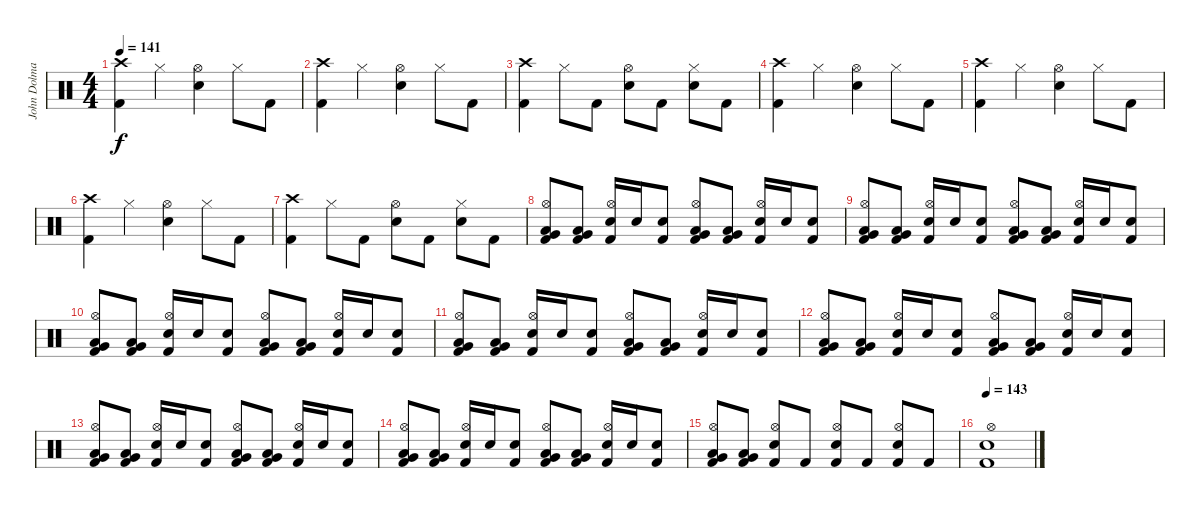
\track ("John Dolmayan (Drums)" "John Dolma") {instrument percussion}
\staff {score}
\articulation defaults
\ts (4 4)
\tempo 141
\clef neutral
\ks c
("Crash high (hit)" "Kick (hit) 2").4{dy f} "Hi-Hat (closed)".4 ("Hi-Hat (open)" "Electric Snare (hit)").4 "Hi-Hat (closed)".8 "Kick (hit) 2".8 |
("Crash high (hit)" "Kick (hit) 2").4 "Hi-Hat (closed)".4 ("Hi-Hat (open)" "Electric Snare (hit)").4 "Hi-Hat (closed)".8 "Kick (hit) 2".8 |
("Crash high (hit)" "Kick (hit) 2").4 "Hi-Hat (closed)".8 "Kick (hit) 2".8 ("Hi-Hat (open)" "Electric Snare (hit)").8 "Kick (hit) 2".8 ("Hi-Hat (closed)" "Electric Snare (hit)").8 "Kick (hit) 2".8 |
("Crash high (hit)" "Kick (hit) 2").4 "Hi-Hat (closed)".4 ("Hi-Hat (open)" "Electric Snare (hit)").4 "Hi-Hat (closed)".8 "Kick (hit) 2".8 |
("Crash high (hit)" "Kick (hit) 2").4 "Hi-Hat (closed)".4 ("Hi-Hat (open)" "Electric Snare (hit)").4 "Hi-Hat (closed)".8 "Kick (hit) 2".8 |
("Crash high (hit)" "Kick (hit) 2").4 "Hi-Hat (closed)".4 ("Hi-Hat (open)" "Electric Snare (hit)").4 "Hi-Hat (closed)".8 "Kick (hit) 2".8 |
("Crash high (hit)" "Kick (hit) 2").4 "Hi-Hat (closed)".8 "Kick (hit) 2".8 ("Hi-Hat (open)" "Electric Snare (hit)").8 "Kick (hit) 2".8 ("Hi-Hat (closed)" "Electric Snare (hit)").8 "Kick (hit) 2".8 |
("Hi-Hat (open)" "Very Low Tom (hit)" "Low Floor Tom (hit)" "Kick (hit) 2").8 ("Very Low Tom (hit)" "Low Floor Tom (hit)" "Kick (hit) 2").8 ("Hi-Hat (open)" "Electric Snare (hit)" "Kick (hit) 2").16 "Electric Snare (hit)".16 ("Electric Snare (hit)" "Kick (hit) 2").8 ("Hi-Hat (open)" "Very Low Tom (hit)" "Low Floor Tom (hit)" "Kick (hit) 2").8 ("Very Low Tom (hit)" "Low Floor Tom (hit)" "Kick (hit) 2").8 ("Hi-Hat (open)" "Electric Snare (hit)" "Kick (hit) 2").16 "Electric Snare (hit)".16 ("Electric Snare (hit)" "Kick (hit) 2").8 |
("Hi-Hat (open)" "Very Low Tom (hit)" "Low Floor Tom (hit)" "Kick (hit) 2").8 ("Very Low Tom (hit)" "Low Floor Tom (hit)" "Kick (hit) 2").8 ("Hi-Hat (open)" "Electric Snare (hit)" "Kick (hit) 2").16 "Electric Snare (hit)".16 ("Electric Snare (hit)" "Kick (hit) 2").8 ("Hi-Hat (open)" "Very Low Tom (hit)" "Low Floor Tom (hit)" "Kick (hit) 2").8 ("Very Low Tom (hit)" "Low Floor Tom (hit)" "Kick (hit) 2").8 ("Hi-Hat (open)" "Electric Snare (hit)" "Kick (hit) 2").16 "Electric Snare (hit)".16 ("Electric Snare (hit)" "Kick (hit) 2").8 |
("Hi-Hat (open)" "Very Low Tom (hit)" "Low Floor Tom (hit)" "Kick (hit) 2").8 ("Very Low Tom (hit)" "Low Floor Tom (hit)" "Kick (hit) 2").8 ("Hi-Hat (open)" "Electric Snare (hit)" "Kick (hit) 2").16 "Electric Snare (hit)".16 ("Electric Snare (hit)" "Kick (hit) 2").8 ("Hi-Hat (open)" "Very Low Tom (hit)" "Low Floor Tom (hit)" "Kick (hit) 2").8 ("Very Low Tom (hit)" "Low Floor Tom (hit)" "Kick (hit) 2").8 ("Hi-Hat (open)" "Electric Snare (hit)" "Kick (hit) 2").16 "Electric Snare (hit)".16 ("Electric Snare (hit)" "Kick (hit) 2").8 |
("Hi-Hat (open)" "Very Low Tom (hit)" "Low Floor Tom (hit)" "Kick (hit) 2").8 ("Very Low Tom (hit)" "Low Floor Tom (hit)" "Kick (hit) 2").8 ("Hi-Hat (open)" "Electric Snare (hit)" "Kick (hit) 2").16 "Electric Snare (hit)".16 ("Electric Snare (hit)" "Kick (hit) 2").8 ("Hi-Hat (open)" "Very Low Tom (hit)" "Low Floor Tom (hit)" "Kick (hit) 2").8 ("Very Low Tom (hit)" "Low Floor Tom (hit)" "Kick (hit) 2").8 ("Hi-Hat (open)" "Electric Snare (hit)" "Kick (hit) 2").16 "Electric Snare (hit)".16 ("Electric Snare (hit)" "Kick (hit) 2").8 |
("Hi-Hat (open)" "Very Low Tom (hit)" "Low Floor Tom (hit)" "Kick (hit) 2").8 ("Very Low Tom (hit)" "Low Floor Tom (hit)" "Kick (hit) 2").8 ("Hi-Hat (open)" "Electric Snare (hit)" "Kick (hit) 2").16 "Electric Snare (hit)".16 ("Electric Snare (hit)" "Kick (hit) 2").8 ("Hi-Hat (open)" "Very Low Tom (hit)" "Low Floor Tom (hit)" "Kick (hit) 2").8 ("Very Low Tom (hit)" "Low Floor Tom (hit)" "Kick (hit) 2").8 ("Hi-Hat (open)" "Electric Snare (hit)" "Kick (hit) 2").16 "Electric Snare (hit)".16 ("Electric Snare (hit)" "Kick (hit) 2").8 |
("Hi-Hat (open)" "Very Low Tom (hit)" "Low Floor Tom (hit)" "Kick (hit) 2").8 ("Very Low Tom (hit)" "Low Floor Tom (hit)" "Kick (hit) 2").8 ("Hi-Hat (open)" "Electric Snare (hit)" "Kick (hit) 2").16 "Electric Snare (hit)".16 ("Electric Snare (hit)" "Kick (hit) 2").8 ("Hi-Hat (open)" "Very Low Tom (hit)" "Low Floor Tom (hit)" "Kick (hit) 2").8 ("Very Low Tom (hit)" "Low Floor Tom (hit)" "Kick (hit) 2").8 ("Hi-Hat (open)" "Electric Snare (hit)" "Kick (hit) 2").16 "Electric Snare (hit)".16 ("Electric Snare (hit)" "Kick (hit) 2").8 |
("Hi-Hat (open)" "Very Low Tom (hit)" "Low Floor Tom (hit)" "Kick (hit) 2").8 ("Very Low Tom (hit)" "Low Floor Tom (hit)" "Kick (hit) 2").8 ("Hi-Hat (open)" "Electric Snare (hit)" "Kick (hit) 2").16 "Electric Snare (hit)".16 ("Electric Snare (hit)" "Kick (hit) 2").8 ("Hi-Hat (open)" "Very Low Tom (hit)" "Low Floor Tom (hit)" "Kick (hit) 2").8 ("Very Low Tom (hit)" "Low Floor Tom (hit)" "Kick (hit) 2").8 ("Hi-Hat (open)" "Electric Snare (hit)" "Kick (hit) 2").16 "Electric Snare (hit)".16 ("Electric Snare (hit)" "Kick (hit) 2").8 |
("Hi-Hat (open)" "Very Low Tom (hit)" "Low Floor Tom (hit)" "Kick (hit) 2").8 ("Very Low Tom (hit)" "Low Floor Tom (hit)" "Kick (hit) 2").8 ("Hi-Hat (open)" "Electric Snare (hit)" "Kick (hit) 2").8 "Kick (hit) 2".8 ("Hi-Hat (open)" "Electric Snare (hit)" "Kick (hit) 2").8 "Kick (hit) 2".8 ("Hi-Hat (open)" "Electric Snare (hit)" "Kick (hit) 2").8 "Kick (hit) 2".8 |
\tempo 143
("Hi-Hat (open)" "Electric Snare (hit)" "Kick (hit) 2").1
